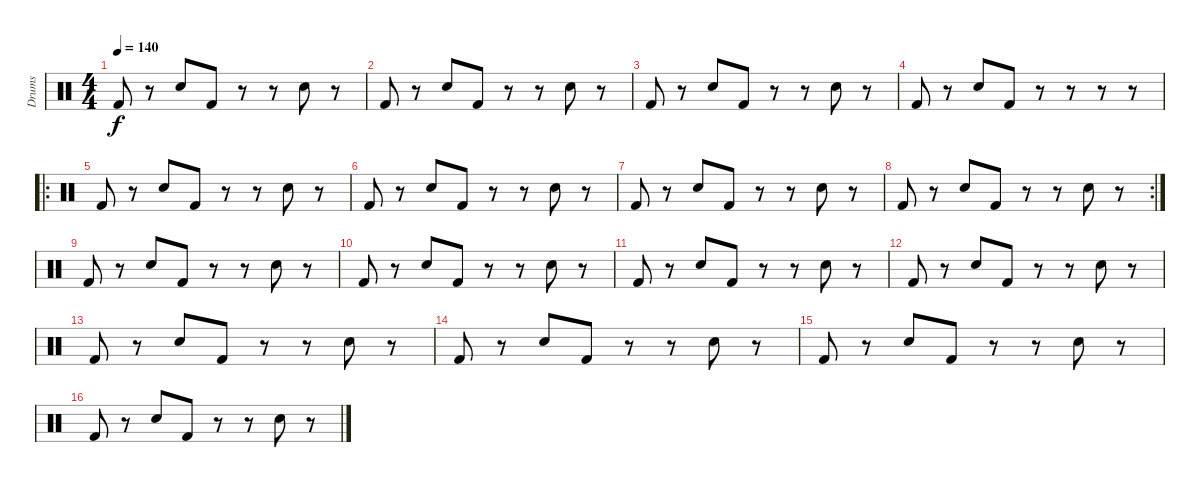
\track ("Drums" "Drums") {instrument percussion}
\staff {score}
\articulation defaults
\ts (4 4)
\tempo 140
\clef neutral
\ks c "Kick (hit) 2".8{dy f}
r.8 "Electric Snare (hit)".8 "Kick (hit) 2".8 r.8 r.8 "Electric Snare (hit)".8 r.8 |
"Kick (hit) 2".8 r.8 "Electric Snare (hit)".8 "Kick (hit) 2".8 r.8 r.8 "Electric Snare (hit)".8 r.8 |
"Kick (hit) 2".8 r.8 "Electric Snare (hit)".8 "Kick (hit) 2".8 r.8 r.8 "Electric Snare (hit)".8 r.8 |
"Kick (hit) 2".8 r.8 "Electric Snare (hit)".8 "Kick (hit) 2".8 r.8 r.8 r.8 r.8 |
\ro "Kick (hit) 2".8
r.8 "Electric Snare (hit)".8 "Kick (hit) 2".8 r.8 r.8 "Electric Snare (hit)".8 r.8 |
"Kick (hit) 2".8 r.8 "Electric Snare (hit)".8 "Kick (hit) 2".8 r.8 r.8 "Electric Snare (hit)".8 r.8 |
"Kick (hit) 2".8 r.8 "Electric Snare (hit)".8 "Kick (hit) 2".8 r.8 r.8 "Electric Snare (hit)".8 r.8 |
\rc 2 "Kick (hit) 2".8
r.8 "Electric Snare (hit)".8 "Kick (hit) 2".8 r.8 r.8 "Electric Snare (hit)".8 r.8 |
"Kick (hit) 2".8 r.8 "Electric Snare (hit)".8 "Kick (hit) 2".8 r.8 r.8 "Electric Snare (hit)".8 r.8 |
"Kick (hit) 2".8 r.8 "Electric Snare (hit)".8 "Kick (hit) 2".8 r.8 r.8 "Electric Snare (hit)".8 r.8 |
"Kick (hit) 2".8 r.8 "Electric Snare (hit)".8 "Kick (hit) 2".8 r.8 r.8 "Electric Snare (hit)".8 r.8 |
"Kick (hit) 2".8 r.8 "Electric Snare (hit)".8 "Kick (hit) 2".8 r.8 r.8 "Electric Snare (hit)".8 r.8 |
"Kick (hit) 2".8 r.8 "Electric Snare (hit)".8 "Kick (hit) 2".8 r.8 r.8 "Electric Snare (hit)".8 r.8 |
"Kick (hit) 2".8 r.8 "Electric Snare (hit)".8 "Kick (hit) 2".8 r.8 r.8 "Electric Snare (hit)".8 r.8 |
"Kick (hit) 2".8 r.8 "Electric Snare (hit)".8 "Kick (hit) 2".8 r.8 r.8 "Electric Snare (hit)".8 r.8 |
"Kick (hit) 2".8 r.8 "Electric Snare (hit)".8 "Kick (hit) 2".8 r.8 r.8 "Electric Snare (hit)".8 r.8
